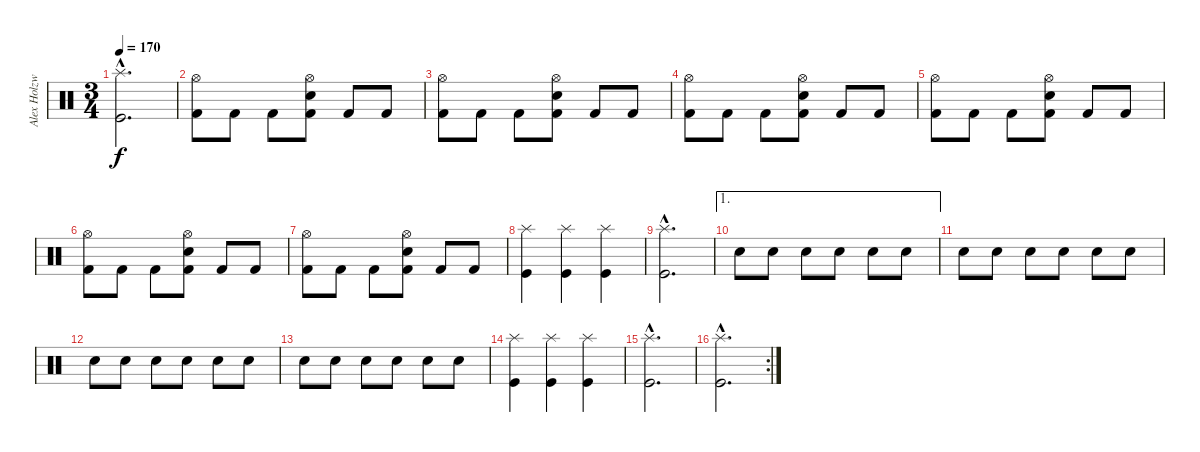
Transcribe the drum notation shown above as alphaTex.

\track ("Alex Holzwarth - Drums" "Alex Holzw") {instrument percussion}
\staff {score}
\articulation defaults
\ts (3 4)
\tempo 170
\clef neutral
\ks c
("Splash (hit)"{hac} "Kick (hit)"{hac}).2{d dy f} |
("Hi-Hat (open)" "Kick (hit) 2").8 "Kick (hit) 2".8 "Kick (hit) 2".8 ("Hi-Hat (open)" "Snare (hit) 2" "Kick (hit) 2").8 "Kick (hit) 2".8 "Kick (hit) 2".8 |
("Hi-Hat (open)" "Kick (hit) 2").8 "Kick (hit) 2".8 "Kick (hit) 2".8 ("Hi-Hat (open)" "Snare (hit) 2" "Kick (hit) 2").8 "Kick (hit) 2".8 "Kick (hit) 2".8 |
("Hi-Hat (open)" "Kick (hit) 2").8 "Kick (hit) 2".8 "Kick (hit) 2".8 ("Hi-Hat (open)" "Snare (hit) 2" "Kick (hit) 2").8 "Kick (hit) 2".8 "Kick (hit) 2".8 |
("Hi-Hat (open)" "Kick (hit) 2").8 "Kick (hit) 2".8 "Kick (hit) 2".8 ("Hi-Hat (open)" "Snare (hit) 2" "Kick (hit) 2").8 "Kick (hit) 2".8 "Kick (hit) 2".8 |
("Hi-Hat (open)" "Kick (hit) 2").8 "Kick (hit) 2".8 "Kick (hit) 2".8 ("Hi-Hat (open)" "Snare (hit) 2" "Kick (hit) 2").8 "Kick (hit) 2".8 "Kick (hit) 2".8 |
("Hi-Hat (open)" "Kick (hit) 2").8 "Kick (hit) 2".8 "Kick (hit) 2".8 ("Hi-Hat (open)" "Snare (hit) 2" "Kick (hit) 2").8 "Kick (hit) 2".8 "Kick (hit) 2".8 |
("Splash (hit)" "Kick (hit)").4 ("Splash (hit)" "Kick (hit)").4 ("Splash (hit)" "Kick (hit)").4 |
("Splash (hit)"{hac} "Kick (hit)"{hac}).2{d} |
\ae 1 "Snare (hit) 2".8{volume 16} "Snare (hit) 2".8 "Snare (hit) 2".8 "Snare (hit) 2".8 "Snare (hit) 2".8 "Snare (hit) 2".8
|
"Snare (hit) 2".8 "Snare (hit) 2".8 "Snare (hit) 2".8 "Snare (hit) 2".8 "Snare (hit) 2".8 "Snare (hit) 2".8 |
"Snare (hit) 2".8 "Snare (hit) 2".8 "Snare (hit) 2".8 "Snare (hit) 2".8 "Snare (hit) 2".8 "Snare (hit) 2".8 |
"Snare (hit) 2".8 "Snare (hit) 2".8 "Snare (hit) 2".8 "Snare (hit) 2".8 "Snare (hit) 2".8 "Snare (hit) 2".8 |
("Splash (hit)" "Kick (hit)").4 ("Splash (hit)" "Kick (hit)").4 ("Splash (hit)" "Kick (hit)").4 |
("Splash (hit)"{hac} "Kick (hit)"{hac}).2{d} |
\rc 2
("Splash (hit)"{hac} "Kick (hit)"{hac}).2{d}
